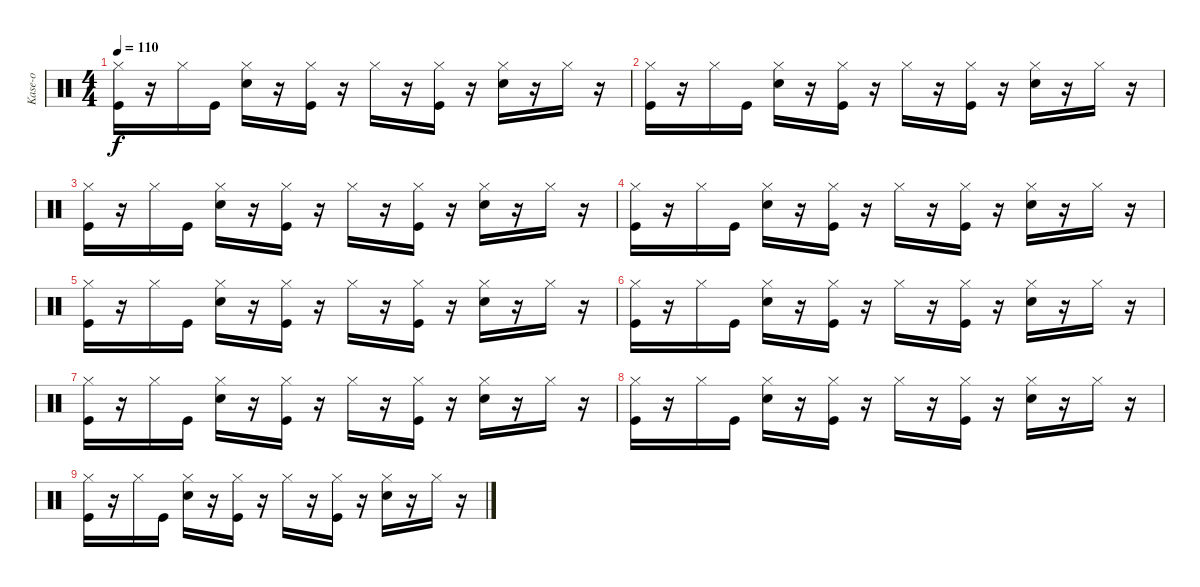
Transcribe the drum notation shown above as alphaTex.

\track ("Kase-o" "Kase-o") {instrument percussion}
\staff {score}
\articulation defaults
\ts (4 4)
\tempo 110
\clef neutral
\ks c
("Hi-Hat (closed)" "Kick (hit)").16{dy f} r.16 "Hi-Hat (closed)".16 "Kick (hit)".16 ("Hi-Hat (closed)" "Electric Snare (hit)").16 r.16 ("Hi-Hat (closed)" "Kick (hit)").16 r.16 "Hi-Hat (closed)".16 r.16 ("Hi-Hat (closed)" "Kick (hit)").16 r.16 ("Hi-Hat (closed)" "Electric Snare (hit)").16 r.16 "Hi-Hat (closed)".16 r.16 |
("Hi-Hat (closed)" "Kick (hit)").16 r.16 "Hi-Hat (closed)".16 "Kick (hit)".16 ("Hi-Hat (closed)" "Electric Snare (hit)").16 r.16 ("Hi-Hat (closed)" "Kick (hit)").16 r.16 "Hi-Hat (closed)".16 r.16 ("Hi-Hat (closed)" "Kick (hit)").16 r.16 ("Hi-Hat (closed)" "Electric Snare (hit)").16 r.16 "Hi-Hat (closed)".16 r.16 |
("Hi-Hat (closed)" "Kick (hit)").16 r.16 "Hi-Hat (closed)".16 "Kick (hit)".16 ("Hi-Hat (closed)" "Electric Snare (hit)").16 r.16 ("Hi-Hat (closed)" "Kick (hit)").16 r.16 "Hi-Hat (closed)".16 r.16 ("Hi-Hat (closed)" "Kick (hit)").16 r.16 ("Hi-Hat (closed)" "Electric Snare (hit)").16 r.16 "Hi-Hat (closed)".16 r.16 |
("Hi-Hat (closed)" "Kick (hit)").16 r.16 "Hi-Hat (closed)".16 "Kick (hit)".16 ("Hi-Hat (closed)" "Electric Snare (hit)").16 r.16 ("Hi-Hat (closed)" "Kick (hit)").16 r.16 "Hi-Hat (closed)".16 r.16 ("Hi-Hat (closed)" "Kick (hit)").16 r.16 ("Hi-Hat (closed)" "Electric Snare (hit)").16 r.16 "Hi-Hat (closed)".16 r.16 |
("Hi-Hat (closed)" "Kick (hit)").16 r.16 "Hi-Hat (closed)".16 "Kick (hit)".16 ("Hi-Hat (closed)" "Electric Snare (hit)").16 r.16 ("Hi-Hat (closed)" "Kick (hit)").16 r.16 "Hi-Hat (closed)".16 r.16 ("Hi-Hat (closed)" "Kick (hit)").16 r.16 ("Hi-Hat (closed)" "Electric Snare (hit)").16 r.16 "Hi-Hat (closed)".16 r.16 |
("Hi-Hat (closed)" "Kick (hit)").16 r.16 "Hi-Hat (closed)".16 "Kick (hit)".16 ("Hi-Hat (closed)" "Electric Snare (hit)").16 r.16 ("Hi-Hat (closed)" "Kick (hit)").16 r.16 "Hi-Hat (closed)".16 r.16 ("Hi-Hat (closed)" "Kick (hit)").16 r.16 ("Hi-Hat (closed)" "Electric Snare (hit)").16 r.16 "Hi-Hat (closed)".16 r.16 |
("Hi-Hat (closed)" "Kick (hit)").16 r.16 "Hi-Hat (closed)".16 "Kick (hit)".16 ("Hi-Hat (closed)" "Electric Snare (hit)").16 r.16 ("Hi-Hat (closed)" "Kick (hit)").16 r.16 "Hi-Hat (closed)".16 r.16 ("Hi-Hat (closed)" "Kick (hit)").16 r.16 ("Hi-Hat (closed)" "Electric Snare (hit)").16 r.16 "Hi-Hat (closed)".16 r.16 |
("Hi-Hat (closed)" "Kick (hit)").16 r.16 "Hi-Hat (closed)".16 "Kick (hit)".16 ("Hi-Hat (closed)" "Electric Snare (hit)").16 r.16 ("Hi-Hat (closed)" "Kick (hit)").16 r.16 "Hi-Hat (closed)".16 r.16 ("Hi-Hat (closed)" "Kick (hit)").16 r.16 ("Hi-Hat (closed)" "Electric Snare (hit)").16 r.16 "Hi-Hat (closed)".16 r.16 |
("Hi-Hat (closed)" "Kick (hit)").16 r.16 "Hi-Hat (closed)".16 "Kick (hit)".16 ("Hi-Hat (closed)" "Electric Snare (hit)").16 r.16 ("Hi-Hat (closed)" "Kick (hit)").16 r.16 "Hi-Hat (closed)".16 r.16 ("Hi-Hat (closed)" "Kick (hit)").16 r.16 ("Hi-Hat (closed)" "Electric Snare (hit)").16 r.16 "Hi-Hat (closed)".16 r.16
